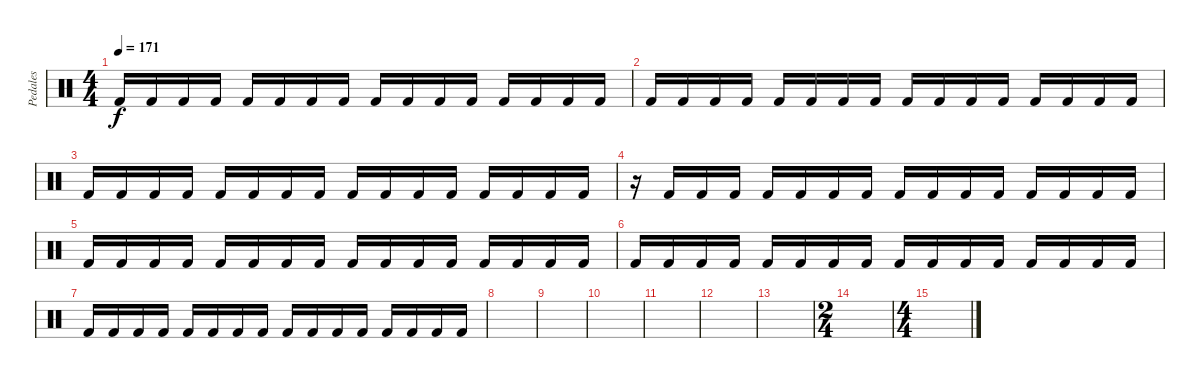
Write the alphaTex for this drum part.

\track ("Pedales" "Pedales") {instrument percussion}
\staff {score}
\articulation defaults
\ts (4 4)
\tempo 171
\clef neutral
\ks c "Kick (hit) 2".16{dy f} "Kick (hit) 2".16 "Kick (hit) 2".16 "Kick (hit) 2".16 "Kick (hit) 2".16 "Kick (hit) 2".16 "Kick (hit) 2".16 "Kick (hit) 2".16 "Kick (hit) 2".16 "Kick (hit) 2".16 "Kick (hit) 2".16 "Kick (hit) 2".16 "Kick (hit) 2".16 "Kick (hit) 2".16 "Kick (hit) 2".16 "Kick (hit) 2".16
|
"Kick (hit) 2".16 "Kick (hit) 2".16 "Kick (hit) 2".16 "Kick (hit) 2".16 "Kick (hit) 2".16 "Kick (hit) 2".16 "Kick (hit) 2".16 "Kick (hit) 2".16 "Kick (hit) 2".16 "Kick (hit) 2".16 "Kick (hit) 2".16 "Kick (hit) 2".16 "Kick (hit) 2".16 "Kick (hit) 2".16 "Kick (hit) 2".16 "Kick (hit) 2".16 |
"Kick (hit) 2".16 "Kick (hit) 2".16 "Kick (hit) 2".16 "Kick (hit) 2".16 "Kick (hit) 2".16 "Kick (hit) 2".16 "Kick (hit) 2".16 "Kick (hit) 2".16 "Kick (hit) 2".16 "Kick (hit) 2".16 "Kick (hit) 2".16 "Kick (hit) 2".16 "Kick (hit) 2".16 "Kick (hit) 2".16 "Kick (hit) 2".16 "Kick (hit) 2".16 |
r.16 "Kick (hit) 2".16 "Kick (hit) 2".16 "Kick (hit) 2".16 "Kick (hit) 2".16 "Kick (hit) 2".16 "Kick (hit) 2".16 "Kick (hit) 2".16 "Kick (hit) 2".16 "Kick (hit) 2".16 "Kick (hit) 2".16 "Kick (hit) 2".16 "Kick (hit) 2".16 "Kick (hit) 2".16 "Kick (hit) 2".16 "Kick (hit) 2".16 |
"Kick (hit) 2".16 "Kick (hit) 2".16 "Kick (hit) 2".16 "Kick (hit) 2".16 "Kick (hit) 2".16 "Kick (hit) 2".16 "Kick (hit) 2".16 "Kick (hit) 2".16 "Kick (hit) 2".16 "Kick (hit) 2".16 "Kick (hit) 2".16 "Kick (hit) 2".16 "Kick (hit) 2".16 "Kick (hit) 2".16 "Kick (hit) 2".16 "Kick (hit) 2".16 |
"Kick (hit) 2".16 "Kick (hit) 2".16 "Kick (hit) 2".16 "Kick (hit) 2".16 "Kick (hit) 2".16 "Kick (hit) 2".16 "Kick (hit) 2".16 "Kick (hit) 2".16 "Kick (hit) 2".16 "Kick (hit) 2".16 "Kick (hit) 2".16 "Kick (hit) 2".16 "Kick (hit) 2".16 "Kick (hit) 2".16 "Kick (hit) 2".16 "Kick (hit) 2".16 |
"Kick (hit) 2".16 "Kick (hit) 2".16 "Kick (hit) 2".16 "Kick (hit) 2".16 "Kick (hit) 2".16 "Kick (hit) 2".16 "Kick (hit) 2".16 "Kick (hit) 2".16 "Kick (hit) 2".16 "Kick (hit) 2".16 "Kick (hit) 2".16 "Kick (hit) 2".16 "Kick (hit) 2".16 "Kick (hit) 2".16 "Kick (hit) 2".16 "Kick (hit) 2".16 |
|
|
|
|
|
|
\ts (2 4)
|
\ts (4 4)
